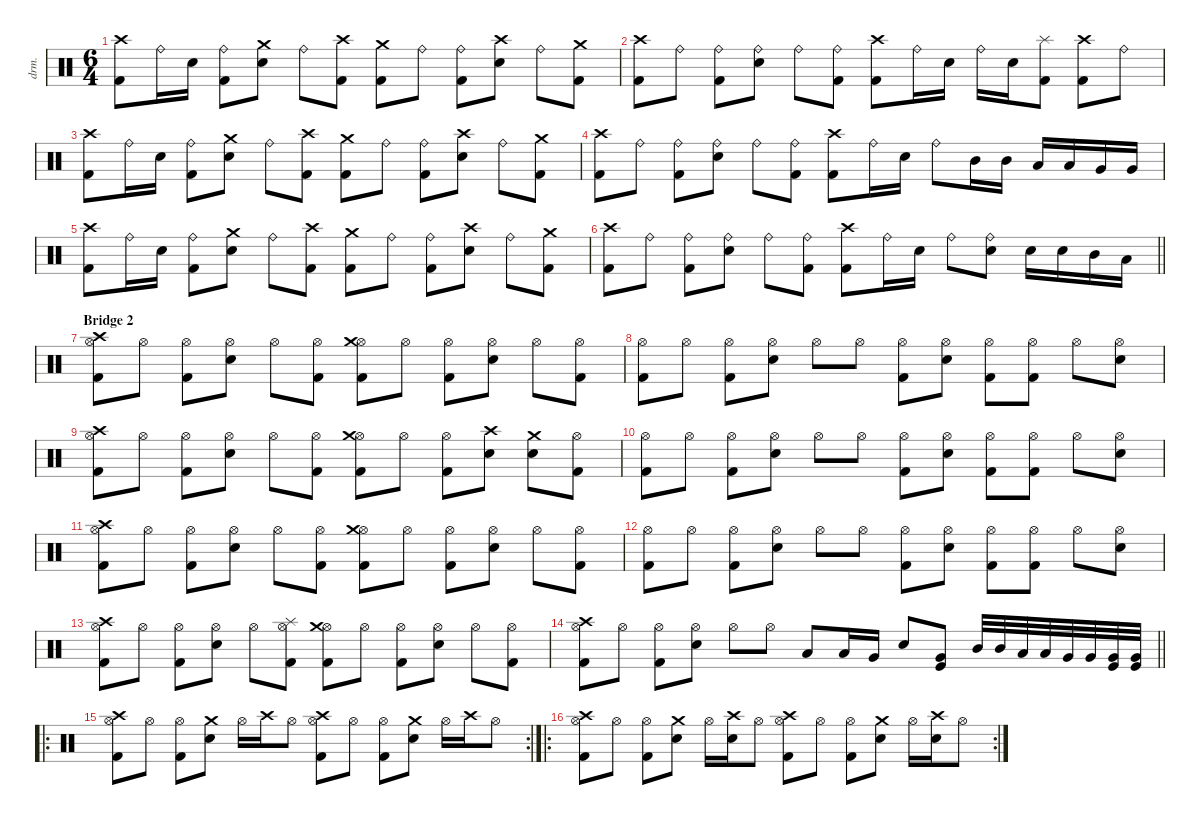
\defaultSystemsLayout 4
\hideDynamics
\bracketExtendMode nobrackets
\otherSystemsTrackNameOrientation horizontal
\track ("Drums" "drm.") {defaultSystemsLayout 4 instrument percussion}
\staff {score}
\articulation defaults
\ts (6 4)
\tempo (93 hide)
\clef neutral
\ks aminor
("Crash high (hit)" "Kick (hit) 2").8{dy fff beam Down} "Ride (bell)".16{dy f beam Down} "Snare (hit) 2".16{dy ff beam Down} ("Ride (bell)" "Kick (hit) 2").8{dy f beam Down} ("Crash medium (hit)" "Snare (hit) 2").8{dy fff beam Down} "Ride (bell)".8{dy f beam Down} ("Crash high (hit)" "Kick (hit) 2").8{dy fff beam Down} ("Crash medium (hit)" "Kick (hit) 2").8{beam Down} "Ride (bell)".8{dy f beam Down} ("Ride (bell)" "Kick (hit) 2").8{beam Down} ("Crash high (hit)" "Snare (hit) 2").8{dy fff beam Down} "Ride (bell)".8{dy f beam Down} ("Crash medium (hit)" "Kick (hit) 2").8{dy fff beam Down} |
("Crash high (hit)" "Kick (hit) 2").8{beam Down} "Ride (bell)".8{dy f beam Down} ("Ride (bell)" "Kick (hit) 2").8{beam Down} ("Ride (bell)" "Snare (hit) 2").8{beam Down} "Ride (bell)".8{beam Down} ("Ride (bell)" "Kick (hit) 2").8{beam Down} ("Crash high (hit)" "Kick (hit) 2").8{dy fff beam Down} "Ride (bell)".16{dy f beam Down} "Snare (hit) 2".16{dy fff beam Down} "Ride (bell)".16{dy f beam Down} "Snare (hit) 2".16{dy fff beam Down} ("Splash (hit)" "Kick (hit) 2").8{beam Down} ("Crash high (hit)" "Kick (hit) 2").8{beam Down} "Ride (bell)".8{dy f beam Down} |
("Crash high (hit)" "Kick (hit) 2").8{dy fff beam Down} "Ride (bell)".16{dy f beam Down} "Snare (hit) 2".16{dy ff beam Down} ("Ride (bell)" "Kick (hit) 2").8{dy f beam Down} ("Crash medium (hit)" "Snare (hit) 2").8{dy fff beam Down} "Ride (bell)".8{dy f beam Down} ("Crash high (hit)" "Kick (hit) 2").8{dy fff beam Down} ("Crash medium (hit)" "Kick (hit) 2").8{beam Down} "Ride (bell)".8{dy f beam Down} ("Ride (bell)" "Kick (hit) 2").8{beam Down} ("Crash high (hit)" "Snare (hit) 2").8{dy fff beam Down} "Ride (bell)".8{dy f beam Down} ("Crash medium (hit)" "Kick (hit) 2").8{dy fff beam Down} |
("Crash high (hit)" "Kick (hit) 2").8{beam Down} "Ride (bell)".8{dy f beam Down} ("Ride (bell)" "Kick (hit) 2").8{beam Down} ("Ride (bell)" "Snare (hit) 2").8{beam Down} "Ride (bell)".8{beam Down} ("Ride (bell)" "Kick (hit) 2").8{beam Down} ("Crash high (hit)" "Kick (hit) 2").8{dy fff beam Down} "Ride (bell)".16{dy f beam Down} "Snare (hit) 2".16{dy fff beam Down} "Ride (bell)".8{dy f beam Down} "Mid Tom (hit)".16{dy fff beam Up} "Mid Tom (hit)".16{beam Up} "Low Tom (hit)".16{beam Up} "Low Tom (hit)".16{beam Up} "Very Low Tom (hit)".16{beam Up} "Very Low Tom (hit)".16{beam Up} |
("Crash high (hit)" "Kick (hit) 2").8{beam Down} "Ride (bell)".16{dy f beam Down} "Snare (hit) 2".16{dy ff beam Down} ("Ride (bell)" "Kick (hit) 2").8{dy f beam Down} ("Crash medium (hit)" "Snare (hit) 2").8{dy fff beam Down} "Ride (bell)".8{dy f beam Down} ("Crash high (hit)" "Kick (hit) 2").8{dy fff beam Down} ("Crash medium (hit)" "Kick (hit) 2").8{beam Down} "Ride (bell)".8{dy f beam Down} ("Ride (bell)" "Kick (hit) 2").8{beam Down} ("Crash high (hit)" "Snare (hit) 2").8{dy fff beam Down} "Ride (bell)".8{dy f beam Down} ("Crash medium (hit)" "Kick (hit) 2").8{dy fff beam Down} |
\barLineRight lightlight
("Crash high (hit)" "Kick (hit) 2").8{beam Down} "Ride (bell)".8{dy f beam Down} ("Ride (bell)" "Kick (hit) 2").8{beam Down} ("Ride (bell)" "Snare (hit) 2").8{beam Down} "Ride (bell)".8{beam Down} ("Ride (bell)" "Kick (hit) 2").8{beam Down} ("Crash high (hit)" "Kick (hit) 2").8{dy fff beam Down} "Ride (bell)".16{dy f beam Down} "Snare (hit) 2".16{dy fff beam Down} "Ride (bell)".8{dy f beam Down} ("Ride (bell)" "Snare (hit) 2").8{beam Down} "Snare (hit) 2".16{dy fff beam Down} "Snare (hit) 2".16{beam Down} "Mid Tom (hit)".16{beam Down} "Low Tom (hit)".16{beam Down} |
\section ("" "Bridge 2")
("Hi-Hat (open)" "Crash high (hit)" "Kick (hit) 2").8{dy ff beam Down} "Hi-Hat (open)".8{beam Down} ("Hi-Hat (open)" "Kick (hit) 2").8{beam Down} ("Hi-Hat (open)" "Snare (hit) 2").8{beam Down} "Hi-Hat (open)".8{beam Down} ("Hi-Hat (open)" "Kick (hit) 2").8{beam Down} ("Hi-Hat (open)" "Crash medium (hit)" "Kick (hit) 2").8{beam Down} "Hi-Hat (open)".8{beam Down} ("Hi-Hat (open)" "Kick (hit) 2").8{beam Down} ("Hi-Hat (open)" "Snare (hit) 2").8{beam Down} "Hi-Hat (open)".8{beam Down} ("Hi-Hat (open)" "Kick (hit) 2").8{beam Down} |
("Hi-Hat (open)" "Kick (hit) 2").8{beam Down} "Hi-Hat (open)".8{beam Down} ("Hi-Hat (open)" "Kick (hit) 2").8{beam Down} ("Hi-Hat (open)" "Snare (hit) 2").8{beam Down} "Hi-Hat (open)".8{beam Down} "Hi-Hat (open)".8{beam Down} ("Hi-Hat (open)" "Kick (hit) 2").8{beam Down} ("Hi-Hat (open)" "Snare (hit) 2").8{beam Down} ("Hi-Hat (open)" "Kick (hit) 2").8{beam Down} ("Hi-Hat (open)" "Kick (hit) 2").8{beam Down} "Hi-Hat (open)".8{beam Down} ("Hi-Hat (open)" "Snare (hit) 2").8{beam Down} |
\tempo (93 hide)
("Hi-Hat (open)" "Crash high (hit)" "Kick (hit) 2").8{beam Down} "Hi-Hat (open)".8{beam Down} ("Hi-Hat (open)" "Kick (hit) 2").8{beam Down} ("Hi-Hat (open)" "Snare (hit) 2").8{beam Down} "Hi-Hat (open)".8{beam Down} ("Hi-Hat (open)" "Kick (hit) 2").8{beam Down} ("Hi-Hat (open)" "Crash medium (hit)" "Kick (hit) 2").8{beam Down} "Hi-Hat (open)".8{beam Down} ("Hi-Hat (open)" "Kick (hit) 2").8{beam Down} ("Crash high (hit)" "Snare (hit) 2").8{dy fff beam Down} ("Crash medium (hit)" "Snare (hit) 2").8{beam Down} ("Hi-Hat (open)" "Kick (hit) 2").8{dy ff beam Down} |
\tempo (91.5 0.00625 hide)
("Hi-Hat (open)" "Kick (hit) 2").8{beam Down} "Hi-Hat (open)".8{beam Down} ("Hi-Hat (open)" "Kick (hit) 2").8{beam Down} ("Hi-Hat (open)" "Snare (hit) 2").8{beam Down} "Hi-Hat (open)".8{beam Down} "Hi-Hat (open)".8{beam Down} ("Hi-Hat (open)" "Kick (hit) 2").8{beam Down} ("Hi-Hat (open)" "Snare (hit) 2").8{beam Down} ("Hi-Hat (open)" "Kick (hit) 2").8{beam Down} ("Hi-Hat (open)" "Kick (hit) 2").8{beam Down} "Hi-Hat (open)".8{beam Down} ("Hi-Hat (open)" "Snare (hit) 2").8{beam Down} |
\tempo (93 hide)
("Hi-Hat (open)" "Crash high (hit)" "Kick (hit) 2").8{beam Down} "Hi-Hat (open)".8{beam Down} ("Hi-Hat (open)" "Kick (hit) 2").8{beam Down} ("Hi-Hat (open)" "Snare (hit) 2").8{beam Down} "Hi-Hat (open)".8{beam Down} ("Hi-Hat (open)" "Kick (hit) 2").8{beam Down} ("Hi-Hat (open)" "Crash medium (hit)" "Kick (hit) 2").8{beam Down} "Hi-Hat (open)".8{beam Down} ("Hi-Hat (open)" "Kick (hit) 2").8{beam Down} ("Hi-Hat (open)" "Snare (hit) 2").8{beam Down} "Hi-Hat (open)".8{beam Down} ("Hi-Hat (open)" "Kick (hit) 2").8{beam Down} |
("Hi-Hat (open)" "Kick (hit) 2").8{beam Down} "Hi-Hat (open)".8{beam Down} ("Hi-Hat (open)" "Kick (hit) 2").8{beam Down} ("Hi-Hat (open)" "Snare (hit) 2").8{beam Down} "Hi-Hat (open)".8{beam Down} "Hi-Hat (open)".8{beam Down} ("Hi-Hat (open)" "Kick (hit) 2").8{beam Down} ("Hi-Hat (open)" "Snare (hit) 2").8{beam Down} ("Hi-Hat (open)" "Kick (hit) 2").8{beam Down} ("Hi-Hat (open)" "Kick (hit) 2").8{beam Down} "Hi-Hat (open)".8{beam Down} ("Hi-Hat (open)" "Snare (hit) 2").8{beam Down} |
\tempo (93 0.00625 hide)
("Hi-Hat (open)" "Crash high (hit)" "Kick (hit) 2").8{beam Down} "Hi-Hat (open)".8{beam Down} ("Hi-Hat (open)" "Kick (hit) 2").8{beam Down} ("Hi-Hat (open)" "Snare (hit) 2").8{beam Down} "Hi-Hat (open)".8{beam Down} ("Hi-Hat (open)" "Splash (hit)" "Kick (hit) 2").8{beam Down} ("Hi-Hat (open)" "Crash medium (hit)" "Kick (hit) 2").8{beam Down} "Hi-Hat (open)".8{beam Down} ("Hi-Hat (open)" "Kick (hit) 2").8{beam Down} ("Hi-Hat (open)" "Snare (hit) 2").8{beam Down} "Hi-Hat (open)".8{beam Down} ("Hi-Hat (open)" "Kick (hit) 2").8{beam Down} |
\tempo (91.5 0.0125 hide)
\barLineRight lightlight
("Hi-Hat (open)" "Crash high (hit)" "Kick (hit) 2").8{beam Down} "Hi-Hat (open)".8{beam Down} ("Hi-Hat (open)" "Kick (hit) 2").8{beam Down} ("Hi-Hat (open)" "Snare (hit) 2").8{beam Down} "Hi-Hat (open)".8{beam Down} "Hi-Hat (open)".8{beam Down} "Low Tom (hit)".8{dy fff beam Up} "Low Tom (hit)".16{beam Up} "Very Low Tom (hit)".16{beam Up} "Snare (hit) 2".8{beam Up} ("Very Low Tom (hit)" "Kick (hit)").8{beam Up} "Mid Tom (hit)".32{beam Up} "Mid Tom (hit)".32{beam Up} "Low Tom (hit)".32{beam Up} "Low Tom (hit)".32{beam Up} "Very Low Tom (hit)".32{beam Up} "Very Low Tom (hit)".32{beam Up} ("Very Low Tom (hit)" "Kick (hit)").32{beam Up} ("Very Low Tom (hit)" "Kick (hit)").32{beam Up} |
\ro
\rc 2
\tempo (93 hide)
("Hi-Hat (open)" "Crash high (hit)" "Kick (hit) 2").8{dy ff beam Down} "Hi-Hat (open)".8{beam Down} ("Hi-Hat (open)" "Kick (hit) 2").8{beam Down} ("Crash medium (hit)" "Snare (hit) 2").8{dy fff beam Down} "Hi-Hat (open)".16{dy ff beam Down} "Crash high (hit)".16{dy fff beam Down} "Hi-Hat (open)".8{dy ff beam Down} ("Hi-Hat (open)" "Crash high (hit)" "Kick (hit) 2").8{beam Down} "Hi-Hat (open)".8{beam Down} ("Hi-Hat (open)" "Kick (hit) 2").8{beam Down} ("Crash medium (hit)" "Snare (hit) 2").8{dy fff beam Down} "Hi-Hat (open)".16{dy ff beam Down} "Crash high (hit)".16{dy fff beam Down} "Hi-Hat (open)".8{dy ff beam Down} |
\ro
\rc 2
("Hi-Hat (open)" "Crash high (hit)" "Kick (hit) 2").8{beam Down} "Hi-Hat (open)".8{beam Down} ("Hi-Hat (open)" "Kick (hit) 2").8{beam Down} ("Crash medium (hit)" "Snare (hit) 2").8{dy fff beam Down} "Hi-Hat (open)".16{dy ff beam Down} ("Crash high (hit)" "Snare (hit) 2").16{dy fff beam Down} "Hi-Hat (open)".8{dy ff beam Down} ("Hi-Hat (open)" "Crash high (hit)" "Kick (hit) 2").8{beam Down} "Hi-Hat (open)".8{beam Down} ("Hi-Hat (open)" "Kick (hit) 2").8{beam Down} ("Crash medium (hit)" "Snare (hit) 2").8{dy fff beam Down} "Hi-Hat (open)".16{dy ff beam Down} ("Crash high (hit)" "Snare (hit) 2").16{dy fff beam Down} "Hi-Hat (open)".8{dy ff beam Down}
